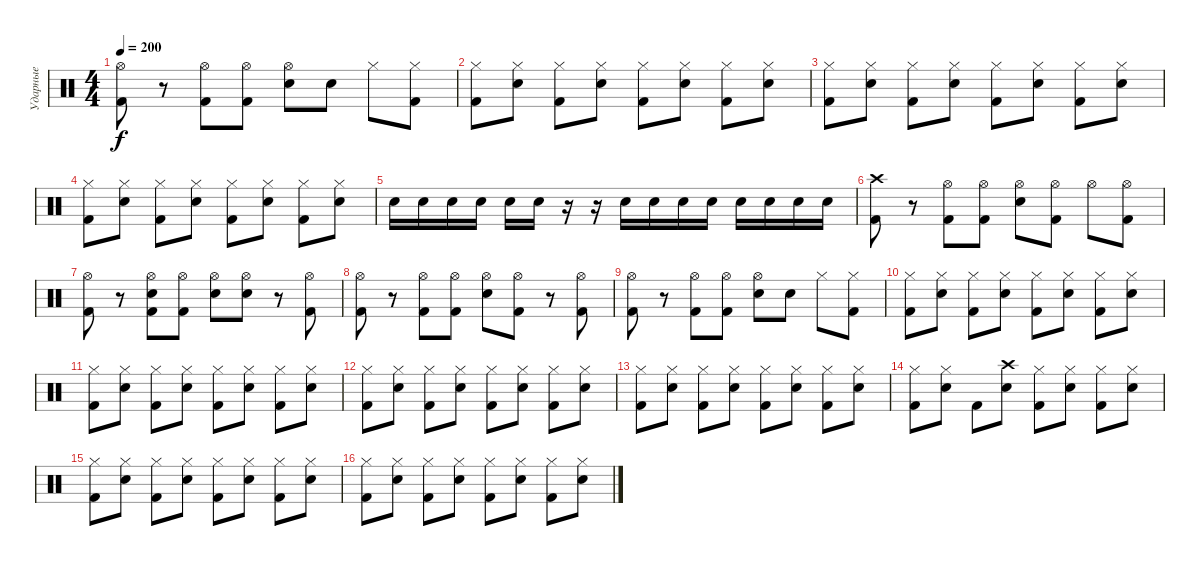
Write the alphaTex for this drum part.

\track ("Ударные" "Ударные") {instrument percussion}
\staff {score}
\articulation defaults
\ts (4 4)
\tempo 200
\clef neutral
\ks c
("Kick (hit) 2" "Hi-Hat (open)").8{dy f} r.8 ("Kick (hit) 2" "Hi-Hat (open)").8 ("Kick (hit) 2" "Hi-Hat (open)").8 ("Electric Snare (hit)" "Hi-Hat (open)").8 "Electric Snare (hit)".8 "Hi-Hat (closed)".8 ("Kick (hit) 2" "Hi-Hat (closed)").8 |
("Kick (hit) 2" "Hi-Hat (closed)").8 ("Electric Snare (hit)" "Hi-Hat (closed)").8 ("Kick (hit) 2" "Hi-Hat (closed)").8 ("Electric Snare (hit)" "Hi-Hat (closed)").8 ("Kick (hit) 2" "Hi-Hat (closed)").8 ("Electric Snare (hit)" "Hi-Hat (closed)").8 ("Kick (hit) 2" "Hi-Hat (closed)").8 ("Electric Snare (hit)" "Hi-Hat (closed)").8 |
("Kick (hit) 2" "Hi-Hat (closed)").8 ("Electric Snare (hit)" "Hi-Hat (closed)").8 ("Kick (hit) 2" "Hi-Hat (closed)").8 ("Electric Snare (hit)" "Hi-Hat (closed)").8 ("Kick (hit) 2" "Hi-Hat (closed)").8 ("Electric Snare (hit)" "Hi-Hat (closed)").8 ("Kick (hit) 2" "Hi-Hat (closed)").8 ("Electric Snare (hit)" "Hi-Hat (closed)").8 |
("Kick (hit) 2" "Hi-Hat (closed)").8 ("Electric Snare (hit)" "Hi-Hat (closed)").8 ("Kick (hit) 2" "Hi-Hat (closed)").8 ("Electric Snare (hit)" "Hi-Hat (closed)").8 ("Kick (hit) 2" "Hi-Hat (closed)").8 ("Electric Snare (hit)" "Hi-Hat (closed)").8 ("Kick (hit) 2" "Hi-Hat (closed)").8 ("Electric Snare (hit)" "Hi-Hat (closed)").8 |
"Electric Snare (hit)".16 "Electric Snare (hit)".16 "Electric Snare (hit)".16 "Electric Snare (hit)".16 "Electric Snare (hit)".16 "Electric Snare (hit)".16 r.16 r.16 "Electric Snare (hit)".16 "Electric Snare (hit)".16 "Electric Snare (hit)".16 "Electric Snare (hit)".16 "Electric Snare (hit)".16 "Electric Snare (hit)".16 "Electric Snare (hit)".16 "Electric Snare (hit)".16 |
("Kick (hit) 2" "Crash high (hit)").8 r.8 ("Kick (hit) 2" "Hi-Hat (open)").8 ("Kick (hit) 2" "Hi-Hat (open)").8 ("Electric Snare (hit)" "Hi-Hat (open)").8 ("Kick (hit) 2" "Hi-Hat (open)").8 "Hi-Hat (open)".8 ("Kick (hit) 2" "Hi-Hat (open)").8 |
("Kick (hit) 2" "Hi-Hat (open)").8 r.8 ("Kick (hit) 2" "Hi-Hat (open)" "Snare (hit)").8 ("Kick (hit) 2" "Hi-Hat (open)").8 ("Electric Snare (hit)" "Hi-Hat (open)").8 ("Electric Snare (hit)" "Hi-Hat (open)").8 r.8 ("Kick (hit) 2" "Hi-Hat (open)").8 |
("Kick (hit) 2" "Hi-Hat (open)").8 r.8 ("Kick (hit) 2" "Hi-Hat (open)").8 ("Kick (hit) 2" "Hi-Hat (open)").8 ("Electric Snare (hit)" "Hi-Hat (open)").8 ("Kick (hit) 2" "Hi-Hat (open)").8 r.8 ("Kick (hit) 2" "Hi-Hat (open)").8 |
("Kick (hit) 2" "Hi-Hat (open)").8 r.8 ("Kick (hit) 2" "Hi-Hat (open)").8 ("Kick (hit) 2" "Hi-Hat (open)").8 ("Electric Snare (hit)" "Hi-Hat (open)").8 "Electric Snare (hit)".8 "Hi-Hat (closed)".8 ("Kick (hit) 2" "Hi-Hat (closed)").8 |
("Kick (hit) 2" "Hi-Hat (closed)").8 ("Electric Snare (hit)" "Hi-Hat (closed)").8 ("Kick (hit) 2" "Hi-Hat (closed)").8 ("Electric Snare (hit)" "Hi-Hat (closed)").8 ("Kick (hit) 2" "Hi-Hat (closed)").8 ("Electric Snare (hit)" "Hi-Hat (closed)").8 ("Kick (hit) 2" "Hi-Hat (closed)").8 ("Electric Snare (hit)" "Hi-Hat (closed)").8 |
("Kick (hit) 2" "Hi-Hat (closed)").8 ("Electric Snare (hit)" "Hi-Hat (closed)").8 ("Kick (hit) 2" "Hi-Hat (closed)").8 ("Electric Snare (hit)" "Hi-Hat (closed)").8 ("Kick (hit) 2" "Hi-Hat (closed)").8 ("Electric Snare (hit)" "Hi-Hat (closed)").8 ("Kick (hit) 2" "Hi-Hat (closed)").8 ("Electric Snare (hit)" "Hi-Hat (closed)").8 |
("Kick (hit) 2" "Hi-Hat (closed)").8 ("Electric Snare (hit)" "Hi-Hat (closed)").8 ("Kick (hit) 2" "Hi-Hat (closed)").8 ("Electric Snare (hit)" "Hi-Hat (closed)").8 ("Kick (hit) 2" "Hi-Hat (closed)").8 ("Electric Snare (hit)" "Hi-Hat (closed)").8 ("Kick (hit) 2" "Hi-Hat (closed)").8 ("Electric Snare (hit)" "Hi-Hat (closed)").8 |
("Kick (hit) 2" "Hi-Hat (closed)").8 ("Electric Snare (hit)" "Hi-Hat (closed)").8 ("Kick (hit) 2" "Hi-Hat (closed)").8 ("Electric Snare (hit)" "Hi-Hat (closed)").8 ("Kick (hit) 2" "Hi-Hat (closed)").8 ("Electric Snare (hit)" "Hi-Hat (closed)").8 ("Kick (hit) 2" "Hi-Hat (closed)").8 ("Electric Snare (hit)" "Hi-Hat (closed)").8 |
("Kick (hit) 2" "Hi-Hat (closed)").8 ("Electric Snare (hit)" "Hi-Hat (closed)").8 "Kick (hit) 2".8 ("Electric Snare (hit)" "Crash high (hit)").8 ("Kick (hit) 2" "Hi-Hat (closed)").8 ("Electric Snare (hit)" "Hi-Hat (closed)").8 ("Kick (hit) 2" "Hi-Hat (closed)").8 ("Electric Snare (hit)" "Hi-Hat (closed)").8 |
("Kick (hit) 2" "Hi-Hat (closed)").8 ("Electric Snare (hit)" "Hi-Hat (closed)").8 ("Kick (hit) 2" "Hi-Hat (closed)").8 ("Electric Snare (hit)" "Hi-Hat (closed)").8 ("Kick (hit) 2" "Hi-Hat (closed)").8 ("Electric Snare (hit)" "Hi-Hat (closed)").8 ("Kick (hit) 2" "Hi-Hat (closed)").8 ("Electric Snare (hit)" "Hi-Hat (closed)").8 |
("Kick (hit) 2" "Hi-Hat (closed)").8 ("Electric Snare (hit)" "Hi-Hat (closed)").8 ("Kick (hit) 2" "Hi-Hat (closed)").8 ("Electric Snare (hit)" "Hi-Hat (closed)").8 ("Kick (hit) 2" "Hi-Hat (closed)").8 ("Electric Snare (hit)" "Hi-Hat (closed)").8 ("Kick (hit) 2" "Hi-Hat (closed)").8 ("Electric Snare (hit)" "Hi-Hat (closed)").8
